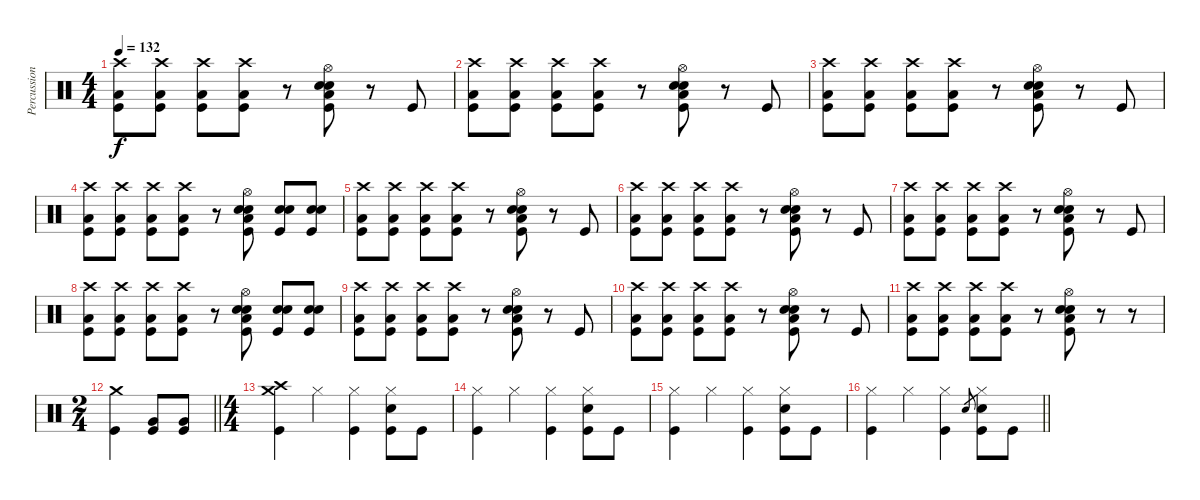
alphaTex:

\track ("Percussion" "Percussion") {instrument percussion}
\staff {score}
\articulation defaults
\ts (4 4)
\tempo 132
\clef neutral
\ks c
("Crash high (hit)" "Low Floor Tom (hit)" "Kick (hit)").8{dy f} ("Crash high (hit)" "Low Floor Tom (hit)" "Kick (hit)").8 ("Crash high (hit)" "Low Floor Tom (hit)" "Kick (hit)").8 ("Crash high (hit)" "Low Floor Tom (hit)" "Kick (hit)").8 r.8 ("Hi-Hat (open)" "Electric Snare (hit)" "Snare (hit) 2" "Low Floor Tom (hit)" "Kick (hit)").8 r.8 "Kick (hit)".8 |
("Crash high (hit)" "Low Floor Tom (hit)" "Kick (hit)").8 ("Crash high (hit)" "Low Floor Tom (hit)" "Kick (hit)").8 ("Crash high (hit)" "Low Floor Tom (hit)" "Kick (hit)").8 ("Crash high (hit)" "Low Floor Tom (hit)" "Kick (hit)").8 r.8 ("Hi-Hat (open)" "Electric Snare (hit)" "Snare (hit) 2" "Low Floor Tom (hit)" "Kick (hit)").8 r.8 "Kick (hit)".8 |
("Crash high (hit)" "Low Floor Tom (hit)" "Kick (hit)").8 ("Crash high (hit)" "Low Floor Tom (hit)" "Kick (hit)").8 ("Crash high (hit)" "Low Floor Tom (hit)" "Kick (hit)").8 ("Crash high (hit)" "Low Floor Tom (hit)" "Kick (hit)").8 r.8 ("Hi-Hat (open)" "Electric Snare (hit)" "Snare (hit) 2" "Low Floor Tom (hit)" "Kick (hit)").8 r.8 "Kick (hit)".8 |
("Crash high (hit)" "Low Floor Tom (hit)" "Kick (hit)").8 ("Crash high (hit)" "Low Floor Tom (hit)" "Kick (hit)").8 ("Crash high (hit)" "Low Floor Tom (hit)" "Kick (hit)").8 ("Crash high (hit)" "Low Floor Tom (hit)" "Kick (hit)").8 r.8 ("Hi-Hat (open)" "Electric Snare (hit)" "Snare (hit) 2" "Low Floor Tom (hit)" "Kick (hit)").8 ("Electric Snare (hit)" "Snare (hit) 2" "Kick (hit)").8 ("Electric Snare (hit)" "Snare (hit) 2" "Kick (hit)").8 |
("Crash high (hit)" "Low Floor Tom (hit)" "Kick (hit)").8 ("Crash high (hit)" "Low Floor Tom (hit)" "Kick (hit)").8 ("Crash high (hit)" "Low Floor Tom (hit)" "Kick (hit)").8 ("Crash high (hit)" "Low Floor Tom (hit)" "Kick (hit)").8 r.8 ("Hi-Hat (open)" "Electric Snare (hit)" "Snare (hit) 2" "Low Floor Tom (hit)" "Kick (hit)").8 r.8 "Kick (hit)".8 |
("Crash high (hit)" "Low Floor Tom (hit)" "Kick (hit)").8 ("Crash high (hit)" "Low Floor Tom (hit)" "Kick (hit)").8 ("Crash high (hit)" "Low Floor Tom (hit)" "Kick (hit)").8 ("Crash high (hit)" "Low Floor Tom (hit)" "Kick (hit)").8 r.8 ("Hi-Hat (open)" "Electric Snare (hit)" "Snare (hit) 2" "Low Floor Tom (hit)" "Kick (hit)").8 r.8 "Kick (hit)".8 |
("Crash high (hit)" "Low Floor Tom (hit)" "Kick (hit)").8 ("Crash high (hit)" "Low Floor Tom (hit)" "Kick (hit)").8 ("Crash high (hit)" "Low Floor Tom (hit)" "Kick (hit)").8 ("Crash high (hit)" "Low Floor Tom (hit)" "Kick (hit)").8 r.8 ("Hi-Hat (open)" "Electric Snare (hit)" "Snare (hit) 2" "Low Floor Tom (hit)" "Kick (hit)").8 r.8 "Kick (hit)".8 |
("Crash high (hit)" "Low Floor Tom (hit)" "Kick (hit)").8 ("Crash high (hit)" "Low Floor Tom (hit)" "Kick (hit)").8 ("Crash high (hit)" "Low Floor Tom (hit)" "Kick (hit)").8 ("Crash high (hit)" "Low Floor Tom (hit)" "Kick (hit)").8 r.8 ("Hi-Hat (open)" "Electric Snare (hit)" "Snare (hit) 2" "Low Floor Tom (hit)" "Kick (hit)").8 ("Electric Snare (hit)" "Snare (hit) 2" "Kick (hit)").8 ("Electric Snare (hit)" "Snare (hit) 2" "Kick (hit)").8 |
("Crash high (hit)" "Low Floor Tom (hit)" "Kick (hit)").8 ("Crash high (hit)" "Low Floor Tom (hit)" "Kick (hit)").8 ("Crash high (hit)" "Low Floor Tom (hit)" "Kick (hit)").8 ("Crash high (hit)" "Low Floor Tom (hit)" "Kick (hit)").8 r.8 ("Hi-Hat (open)" "Electric Snare (hit)" "Snare (hit) 2" "Low Floor Tom (hit)" "Kick (hit)").8 r.8 "Kick (hit)".8 |
("Crash high (hit)" "Low Floor Tom (hit)" "Kick (hit)").8 ("Crash high (hit)" "Low Floor Tom (hit)" "Kick (hit)").8 ("Crash high (hit)" "Low Floor Tom (hit)" "Kick (hit)").8 ("Crash high (hit)" "Low Floor Tom (hit)" "Kick (hit)").8 r.8 ("Hi-Hat (open)" "Electric Snare (hit)" "Snare (hit) 2" "Low Floor Tom (hit)" "Kick (hit)").8 r.8 "Kick (hit)".8 |
("Crash high (hit)" "Low Floor Tom (hit)" "Kick (hit)").8 ("Crash high (hit)" "Low Floor Tom (hit)" "Kick (hit)").8 ("Crash high (hit)" "Low Floor Tom (hit)" "Kick (hit)").8 ("Crash high (hit)" "Low Floor Tom (hit)" "Kick (hit)").8 r.8 ("Hi-Hat (open)" "Electric Snare (hit)" "Snare (hit) 2" "Low Floor Tom (hit)" "Kick (hit)").8 r.8 r.8 |
\ts (2 4)
\barLineRight lightlight
("Crash medium (hit)" "Kick (hit)").4 ("Very Low Tom (hit)" "Kick (hit)").8 ("Very Low Tom (hit)" "Kick (hit)").8 |
\ts (4 4)
("Crash high (hit)" "Crash medium (hit)" "Kick (hit)").4 "Hi-Hat (closed)".4 ("Hi-Hat (closed)" "Kick (hit)").4 ("Hi-Hat (closed)" "Electric Snare (hit)" "Kick (hit)").8 "Kick (hit)".8 |
("Hi-Hat (closed)" "Kick (hit)").4 "Hi-Hat (closed)".4 ("Hi-Hat (closed)" "Kick (hit)").4 ("Hi-Hat (closed)" "Electric Snare (hit)" "Kick (hit)").8 "Kick (hit)".8 |
("Hi-Hat (closed)" "Kick (hit)").4 "Hi-Hat (closed)".4 ("Hi-Hat (closed)" "Kick (hit)").4 ("Hi-Hat (closed)" "Electric Snare (hit)" "Kick (hit)").8 "Kick (hit)".8 |
\barLineRight lightlight
("Hi-Hat (closed)" "Kick (hit)").4 "Hi-Hat (closed)".4 ("Hi-Hat (closed)" "Kick (hit)").4 "Electric Snare (hit)".8{gr} ("Hi-Hat (closed)" "Electric Snare (hit)" "Kick (hit)").8 "Kick (hit)".8
